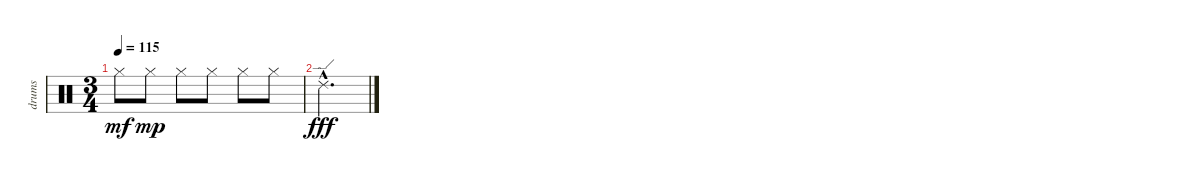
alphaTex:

\track ("drums" "drums") {instrument percussion}
\staff {score}
\articulation defaults
\ts (3 4)
\tempo 115
\clef neutral
\ks c "Hi-Hat (closed)".8{dy mf} "Hi-Hat (closed)".8{dy mp} "Hi-Hat (closed)".8 "Hi-Hat (closed)".8 "Hi-Hat (closed)".8 "Hi-Hat (closed)".8
|
"Ride (edge) 2"{hac}.2{d dy fff}
